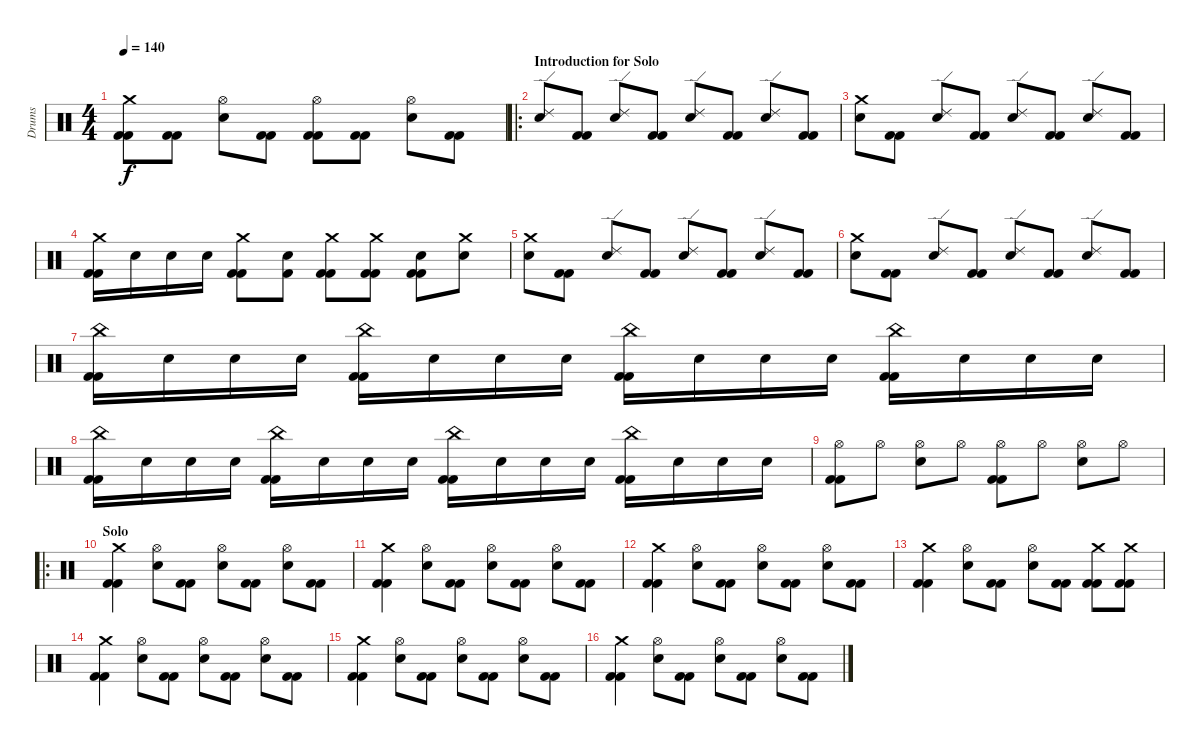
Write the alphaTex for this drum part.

\track ("Drums" "Drums") {instrument percussion}
\staff {score}
\articulation defaults
\ts (4 4)
\tempo 140
\clef neutral
\ks c
("Crash medium (hit)" "Kick (hit) 2" "Kick (hit) 2").8{dy f} ("Kick (hit) 2" "Kick (hit) 2").8 ("Electric Snare (hit)" "Hi-Hat (open)").8 ("Kick (hit) 2" "Kick (hit) 2").8 ("Kick (hit) 2" "Hi-Hat (open)" "Kick (hit) 2").8 ("Kick (hit) 2" "Kick (hit) 2").8 ("Electric Snare (hit)" "Hi-Hat (open)").8 ("Kick (hit) 2" "Kick (hit) 2").8 |
\ro
\section ("" "Introduction for Solo")
("Ride (edge) 2" "Electric Snare (hit)").8 ("Kick (hit) 2" "Kick (hit) 2").8 ("Electric Snare (hit)" "Ride (edge) 2").8 ("Kick (hit) 2" "Kick (hit) 2").8 ("Electric Snare (hit)" "Ride (edge) 2").8 ("Kick (hit) 2" "Kick (hit) 2").8 ("Ride (edge) 2" "Electric Snare (hit)").8 ("Kick (hit) 2" "Kick (hit) 2").8 |
("Crash medium (hit)" "Electric Snare (hit)").8 ("Kick (hit) 2" "Kick (hit) 2").8 ("Electric Snare (hit)" "Ride (edge) 2").8 ("Kick (hit) 2" "Kick (hit) 2").8 ("Electric Snare (hit)" "Ride (edge) 2").8 ("Kick (hit) 2" "Kick (hit) 2").8 ("Ride (edge) 2" "Electric Snare (hit)").8 ("Kick (hit) 2" "Kick (hit) 2").8 |
("Kick (hit) 2" "Crash medium (hit)" "Kick (hit) 2").16 "Electric Snare (hit)".16 "Electric Snare (hit)".16 "Electric Snare (hit)".16 ("Crash medium (hit)" "Kick (hit) 2" "Kick (hit) 2").8 ("Electric Snare (hit)" "Kick (hit) 2").8 ("Crash medium (hit)" "Kick (hit) 2" "Kick (hit) 2").8 ("Kick (hit) 2" "Kick (hit) 2" "Crash medium (hit)").8 ("Kick (hit) 2" "Kick (hit) 2" "Electric Snare (hit)").8 ("Electric Snare (hit)" "Crash medium (hit)").8 |
("Crash medium (hit)" "Electric Snare (hit)").8 ("Kick (hit) 2" "Kick (hit) 2").8 ("Electric Snare (hit)" "Ride (edge) 2").8 ("Kick (hit) 2" "Kick (hit) 2").8 ("Electric Snare (hit)" "Ride (edge) 2").8 ("Kick (hit) 2" "Kick (hit) 2").8 ("Ride (edge) 2" "Electric Snare (hit)").8 ("Kick (hit) 2" "Kick (hit) 2").8 |
("Crash medium (hit)" "Electric Snare (hit)").8 ("Kick (hit) 2" "Kick (hit) 2").8 ("Electric Snare (hit)" "Ride (edge) 2").8 ("Kick (hit) 2" "Kick (hit) 2").8 ("Electric Snare (hit)" "Ride (edge) 2").8 ("Kick (hit) 2" "Kick (hit) 2").8 ("Ride (edge) 2" "Electric Snare (hit)").8 ("Kick (hit) 2" "Kick (hit) 2").8 |
("China (hit)" "Kick (hit) 2" "Kick (hit) 2").16 "Electric Snare (hit)".16 "Electric Snare (hit)".16 "Electric Snare (hit)".16 ("China (hit)" "Kick (hit) 2" "Kick (hit) 2").16 "Electric Snare (hit)".16 "Electric Snare (hit)".16 "Electric Snare (hit)".16 ("Kick (hit) 2" "Kick (hit) 2" "China (hit)").16 "Electric Snare (hit)".16 "Electric Snare (hit)".16 "Electric Snare (hit)".16 ("China (hit)" "Kick (hit) 2" "Kick (hit) 2").16 "Electric Snare (hit)".16 "Electric Snare (hit)".16 "Electric Snare (hit)".16 |
("China (hit)" "Kick (hit) 2" "Kick (hit) 2").16 "Electric Snare (hit)".16 "Electric Snare (hit)".16 "Electric Snare (hit)".16 ("China (hit)" "Kick (hit) 2" "Kick (hit) 2").16 "Electric Snare (hit)".16 "Electric Snare (hit)".16 "Electric Snare (hit)".16 ("Kick (hit) 2" "Kick (hit) 2" "China (hit)").16 "Electric Snare (hit)".16 "Electric Snare (hit)".16 "Electric Snare (hit)".16 ("China (hit)" "Kick (hit) 2" "Kick (hit) 2").16 "Electric Snare (hit)".16 "Electric Snare (hit)".16 "Electric Snare (hit)".16 |
("Hi-Hat (open)" "Kick (hit) 2" "Kick (hit) 2").8 "Hi-Hat (open)".8 ("Electric Snare (hit)" "Hi-Hat (open)").8 "Hi-Hat (open)".8 ("Hi-Hat (open)" "Kick (hit) 2" "Kick (hit) 2").8 "Hi-Hat (open)".8 ("Electric Snare (hit)" "Hi-Hat (open)").8 "Hi-Hat (open)".8 |
\ro
\section ("" "Solo ")
("Crash medium (hit)" "Kick (hit) 2" "Kick (hit) 2").4 ("Hi-Hat (open)" "Electric Snare (hit)").8 ("Kick (hit) 2" "Kick (hit) 2").8 ("Hi-Hat (open)" "Electric Snare (hit)").8 ("Kick (hit) 2" "Kick (hit) 2").8 ("Hi-Hat (open)" "Electric Snare (hit)").8 ("Kick (hit) 2" "Kick (hit) 2").8 |
("Crash medium (hit)" "Kick (hit) 2" "Kick (hit) 2").4 ("Hi-Hat (open)" "Electric Snare (hit)").8 ("Kick (hit) 2" "Kick (hit) 2").8 ("Hi-Hat (open)" "Electric Snare (hit)").8 ("Kick (hit) 2" "Kick (hit) 2").8 ("Hi-Hat (open)" "Electric Snare (hit)").8 ("Kick (hit) 2" "Kick (hit) 2").8 |
("Crash medium (hit)" "Kick (hit) 2" "Kick (hit) 2").4 ("Hi-Hat (open)" "Electric Snare (hit)").8 ("Kick (hit) 2" "Kick (hit) 2").8 ("Hi-Hat (open)" "Electric Snare (hit)").8 ("Kick (hit) 2" "Kick (hit) 2").8 ("Hi-Hat (open)" "Electric Snare (hit)").8 ("Kick (hit) 2" "Kick (hit) 2").8 |
("Crash medium (hit)" "Kick (hit) 2" "Kick (hit) 2").4 ("Hi-Hat (open)" "Electric Snare (hit)").8 ("Kick (hit) 2" "Kick (hit) 2").8 ("Hi-Hat (open)" "Electric Snare (hit)").8 ("Kick (hit) 2" "Kick (hit) 2").8 ("Crash medium (hit)" "Kick (hit) 2" "Kick (hit) 2").8 ("Crash medium (hit)" "Kick (hit) 2" "Kick (hit) 2").8 |
("Crash medium (hit)" "Kick (hit) 2" "Kick (hit) 2").4 ("Hi-Hat (open)" "Electric Snare (hit)").8 ("Kick (hit) 2" "Kick (hit) 2").8 ("Hi-Hat (open)" "Electric Snare (hit)").8 ("Kick (hit) 2" "Kick (hit) 2").8 ("Hi-Hat (open)" "Electric Snare (hit)").8 ("Kick (hit) 2" "Kick (hit) 2").8 |
("Crash medium (hit)" "Kick (hit) 2" "Kick (hit) 2").4 ("Hi-Hat (open)" "Electric Snare (hit)").8 ("Kick (hit) 2" "Kick (hit) 2").8 ("Hi-Hat (open)" "Electric Snare (hit)").8 ("Kick (hit) 2" "Kick (hit) 2").8 ("Hi-Hat (open)" "Electric Snare (hit)").8 ("Kick (hit) 2" "Kick (hit) 2").8 |
("Crash medium (hit)" "Kick (hit) 2" "Kick (hit) 2").4 ("Hi-Hat (open)" "Electric Snare (hit)").8 ("Kick (hit) 2" "Kick (hit) 2").8 ("Hi-Hat (open)" "Electric Snare (hit)").8 ("Kick (hit) 2" "Kick (hit) 2").8 ("Hi-Hat (open)" "Electric Snare (hit)").8 ("Kick (hit) 2" "Kick (hit) 2").8
